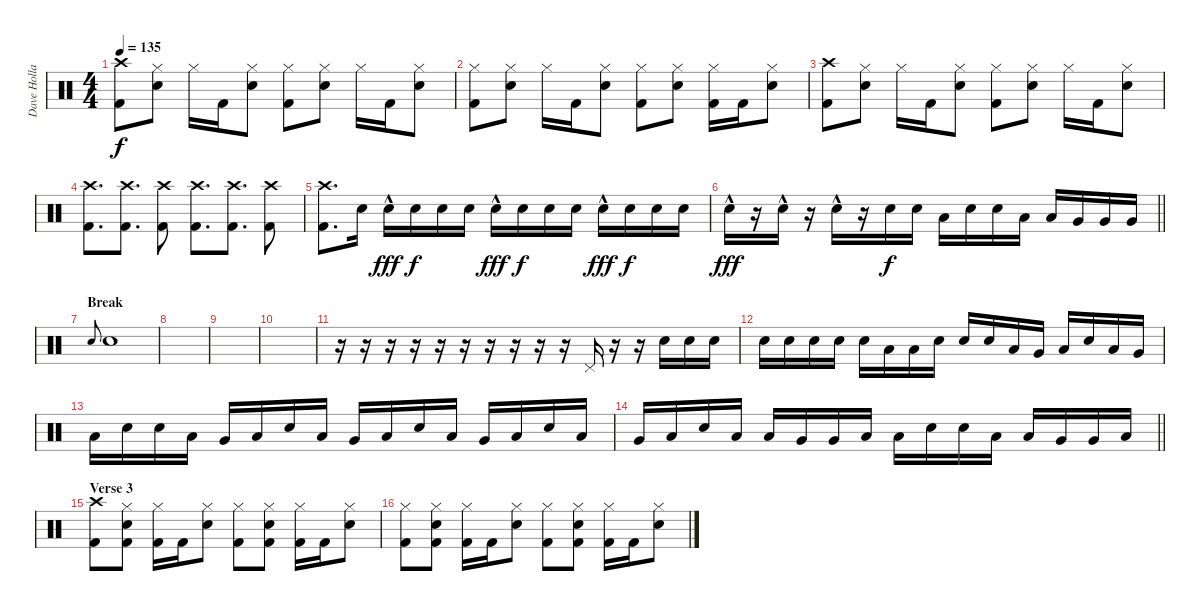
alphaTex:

\track ("Dave Holland" "Dave Holla") {instrument percussion}
\staff {score}
\articulation defaults
\ts (4 4)
\tempo 135
\clef neutral
\ks c
("Crash high (hit)" "Kick (hit) 2").8{dy f} ("Hi-Hat (closed)" "Snare (hit) 2").8 "Hi-Hat (closed)".16 "Kick (hit) 2".16 ("Hi-Hat (closed)" "Snare (hit) 2").8 ("Hi-Hat (closed)" "Kick (hit) 2").8 ("Hi-Hat (closed)" "Snare (hit) 2").8 "Hi-Hat (closed)".16 "Kick (hit) 2".16 ("Hi-Hat (closed)" "Snare (hit) 2").8 |
("Hi-Hat (closed)" "Kick (hit) 2").8 ("Hi-Hat (closed)" "Snare (hit) 2").8 "Hi-Hat (closed)".16 "Kick (hit) 2".16 ("Hi-Hat (closed)" "Snare (hit) 2").8 ("Hi-Hat (closed)" "Kick (hit) 2").8 ("Hi-Hat (closed)" "Snare (hit) 2").8 ("Hi-Hat (closed)" "Kick (hit) 2").16 "Kick (hit) 2".16 ("Hi-Hat (closed)" "Snare (hit) 2").8 |
("Crash high (hit)" "Kick (hit) 2").8 ("Hi-Hat (closed)" "Snare (hit) 2").8 "Hi-Hat (closed)".16 "Kick (hit) 2".16 ("Hi-Hat (closed)" "Snare (hit) 2").8 ("Hi-Hat (closed)" "Kick (hit) 2").8 ("Hi-Hat (closed)" "Snare (hit) 2").8 "Hi-Hat (closed)".16 "Kick (hit) 2".16 ("Hi-Hat (closed)" "Snare (hit) 2").8 |
("Crash high (hit)" "Kick (hit) 2").8{d} ("Crash high (hit)" "Kick (hit) 2").8{d} ("Crash high (hit)" "Kick (hit) 2").8 ("Crash high (hit)" "Kick (hit) 2").8{d} ("Crash high (hit)" "Kick (hit) 2").8{d} ("Crash high (hit)" "Kick (hit) 2").8 |
("Crash high (hit)" "Kick (hit) 2").8{d} "Snare (hit) 2".16 "Snare (hit) 2"{hac}.16{dy fff} "Snare (hit) 2".16{dy f} "Snare (hit) 2".16 "Snare (hit) 2".16 "Snare (hit) 2"{hac}.16{dy fff} "Snare (hit) 2".16{dy f} "Snare (hit) 2".16 "Snare (hit) 2".16 "Snare (hit) 2"{hac}.16{dy fff} "Snare (hit) 2".16{dy f} "Snare (hit) 2".16 "Snare (hit) 2".16 |
\barLineRight lightlight "Snare (hit) 2"{hac}.16{dy fff}
r.16 "Snare (hit) 2"{hac}.16 r.16 "Snare (hit) 2"{hac}.16 r.16 "Snare (hit) 2".16{dy f} "Snare (hit) 2".16 "Low Tom (hit)".16 "Snare (hit) 2".16 "Snare (hit) 2".16 "Low Tom (hit)".16 "Low Tom (hit)".16 "Very Low Tom (hit)".16 "Very Low Tom (hit)".16 "Very Low Tom (hit)".16 |
\section ("" "Break")
"Snare (hit) 2".8{gr onbeat} "Snare (hit) 2".1 |
|
|
|
r.16 r.16 r.16 r.16 r.16 r.16 r.16 r.16 r.16 r.16 "Pedal Hi-Hat (hit)".16 r.16 r.16 "Snare (hit) 2".16 "Snare (hit) 2".16 "Snare (hit) 2".16 |
"Snare (hit) 2".16 "Snare (hit) 2".16 "Snare (hit) 2".16 "Snare (hit) 2".16 "Snare (hit) 2".16 "Low Tom (hit)".16 "Low Tom (hit)".16 "Snare (hit) 2".16 "Snare (hit) 2".16 "Snare (hit) 2".16 "Low Tom (hit)".16 "Very Low Tom (hit)".16 "Low Floor Tom (hit)".16 "Snare (hit) 2".16 "Low Tom (hit)".16 "Very Low Tom (hit)".16 |
"Low Floor Tom (hit)".16 "Snare (hit) 2".16 "Snare (hit) 2".16 "Low Tom (hit)".16 "Very Low Tom (hit)".16 "Low Floor Tom (hit)".16 "Snare (hit) 2".16 "Low Tom (hit)".16 "Very Low Tom (hit)".16 "Low Floor Tom (hit)".16 "Snare (hit) 2".16 "Low Tom (hit)".16 "Very Low Tom (hit)".16 "Low Floor Tom (hit)".16 "Snare (hit) 2".16 "Low Tom (hit)".16 |
\barLineRight lightlight "Very Low Tom (hit)".16 "Low Floor Tom (hit)".16 "Snare (hit) 2".16 "Low Tom (hit)".16 "Low Tom (hit)".16 "Very Low Tom (hit)".16 "Very Low Tom (hit)".16 "Low Floor Tom (hit)".16 "Low Floor Tom (hit)".16 "Snare (hit) 2".16 "Snare (hit) 2".16 "Low Tom (hit)".16 "Low Tom (hit)".16 "Very Low Tom (hit)".16 "Very Low Tom (hit)".16 "Low Floor Tom (hit)".16
|
\section ("" "Verse 3")
("Crash high (hit)" "Kick (hit) 2").8 ("Hi-Hat (closed)" "Snare (hit) 2" "Kick (hit) 2").8 ("Hi-Hat (closed)" "Kick (hit) 2").16 "Kick (hit) 2".16 ("Hi-Hat (closed)" "Snare (hit) 2").8 ("Hi-Hat (closed)" "Kick (hit) 2").8 ("Hi-Hat (closed)" "Snare (hit) 2" "Kick (hit) 2").8 ("Hi-Hat (closed)" "Kick (hit) 2").16 "Kick (hit) 2".16 ("Hi-Hat (closed)" "Snare (hit) 2").8 |
("Hi-Hat (closed)" "Kick (hit) 2").8 ("Hi-Hat (closed)" "Snare (hit) 2" "Kick (hit) 2").8 ("Hi-Hat (closed)" "Kick (hit) 2").16 "Kick (hit) 2".16 ("Hi-Hat (closed)" "Snare (hit) 2").8 ("Hi-Hat (closed)" "Kick (hit) 2").8 ("Hi-Hat (closed)" "Snare (hit) 2" "Kick (hit) 2").8 ("Hi-Hat (closed)" "Kick (hit) 2").16 "Kick (hit) 2".16 ("Hi-Hat (closed)" "Snare (hit) 2").8
